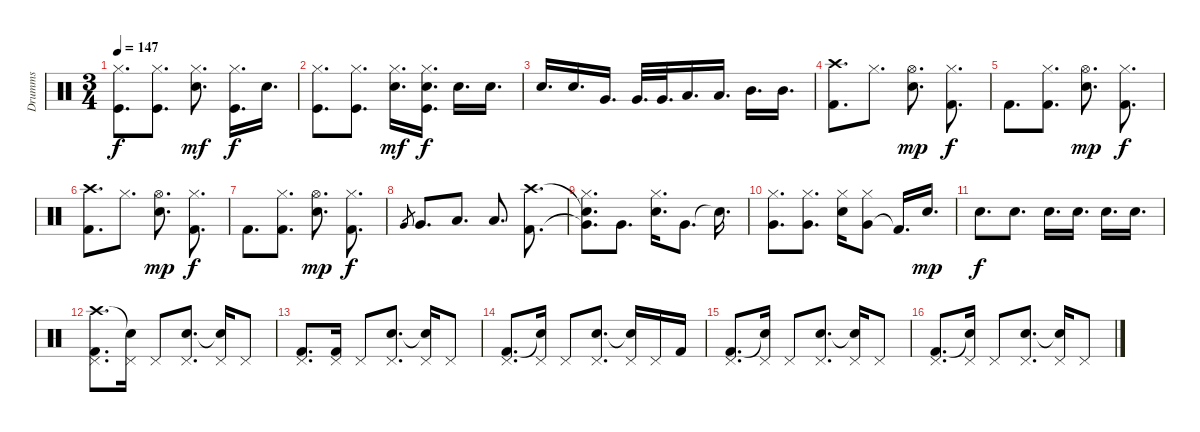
\track ("Drumms" "Drumms") {instrument percussion}
\staff {score}
\articulation defaults
\ts (3 4)
\tempo 147
\clef neutral
\ks c
("Kick (hit)" "Hi-Hat (closed)").8{d dy f} ("Kick (hit)" "Hi-Hat (closed)").8{d} ("Electric Snare (hit)" "Hi-Hat (closed)").8{d dy mf} ("Kick (hit)" "Hi-Hat (closed)").16{d dy f} "Electric Snare (hit)".16{d} |
("Kick (hit)" "Hi-Hat (closed)").8{d} ("Kick (hit)" "Hi-Hat (closed)").8{d} ("Electric Snare (hit)" "Hi-Hat (closed)").16{d dy mf} ("Electric Snare (hit)" "Kick (hit)" "Hi-Hat (closed)").16{d dy f} "Electric Snare (hit)".16{d} "Electric Snare (hit)".16{d} |
"Electric Snare (hit)".16{d} "Electric Snare (hit)".16{d} "Very Low Tom (hit)".16{d} "Very Low Tom (hit)".32{d} "Very Low Tom (hit)".32{d} "Low Tom (hit)".16{d} "Low Tom (hit)".16{d} "Mid Tom (hit)".16{d} "Mid Tom (hit)".16{d} |
("Crash high (hit)" "Kick (hit) 2").8{d} "Hi-Hat (closed)".8{d} ("Hi-Hat (open)" "Electric Snare (hit)").8{d dy mp} ("Kick (hit) 2" "Hi-Hat (closed)").8{d dy f} |
"Kick (hit) 2".8{d} ("Kick (hit) 2" "Hi-Hat (closed)").8{d} ("Hi-Hat (open)" "Electric Snare (hit)").8{d dy mp} ("Kick (hit) 2" "Hi-Hat (closed)").8{d dy f} |
("Crash high (hit)" "Kick (hit) 2").8{d} "Hi-Hat (closed)".8{d} ("Hi-Hat (open)" "Electric Snare (hit)").8{d dy mp} ("Kick (hit) 2" "Hi-Hat (closed)").8{d dy f} |
"Kick (hit) 2".8{d} ("Kick (hit) 2" "Hi-Hat (closed)").8{d} ("Hi-Hat (open)" "Electric Snare (hit)").8{d dy mp} ("Kick (hit) 2" "Hi-Hat (closed)").8{d dy f} |
"Very Low Tom (hit)".8{gr} "Very Low Tom (hit)".8{d} "Low Tom (hit)".8{d} "Low Tom (hit)".8{d} ("Crash high (hit)" "Kick (hit) 2").8{d} |
("Snare (hit)"{t} "Very Low Tom (hit)"{t} "Hi-Hat (closed)").8{d} "Very Low Tom (hit)".8{d} ("Electric Snare (hit)" "Hi-Hat (closed)").16{d} "Very Low Tom (hit)".8{d} "Snare (hit)"{t}.16{d} |
("Very Low Tom (hit)" "Hi-Hat (closed)").8{d} ("Very Low Tom (hit)" "Hi-Hat (closed)").8{d} ("Electric Snare (hit)" "Hi-Hat (closed)").16 ("Very Low Tom (hit)" "Hi-Hat (closed)").8 "Kick (hit) 2"{t}.16{d} "Electric Snare (hit)".16{d dy mp} |
"Electric Snare (hit)".8{d dy f} "Electric Snare (hit)".8{d} "Electric Snare (hit)".16{d} "Electric Snare (hit)".16{d} "Electric Snare (hit)".16{d} "Electric Snare (hit)".16{d} |
\section ("" "")
("Crash high (hit)" "Kick (hit) 2" "Pedal Hi-Hat (hit)").8{d} ("Snare (hit)"{t} "Pedal Hi-Hat (hit)").16 "Pedal Hi-Hat (hit)".8 ("Electric Snare (hit)" "Pedal Hi-Hat (hit)").8{d} ("Snare (hit)"{t} "Pedal Hi-Hat (hit)").16 "Pedal Hi-Hat (hit)".8 |
("Kick (hit) 2" "Pedal Hi-Hat (hit)").8{d} ("Kick (hit) 2" "Pedal Hi-Hat (hit)").16 "Pedal Hi-Hat (hit)".8 ("Electric Snare (hit)" "Pedal Hi-Hat (hit)").8{d} ("Snare (hit)"{t} "Pedal Hi-Hat (hit)").16 "Pedal Hi-Hat (hit)".8 |
("Kick (hit) 2" "Pedal Hi-Hat (hit)").8{d} ("Snare (hit)"{t} "Pedal Hi-Hat (hit)").16 "Pedal Hi-Hat (hit)".8 ("Electric Snare (hit)" "Pedal Hi-Hat (hit)").8{d} ("Snare (hit)"{t} "Pedal Hi-Hat (hit)").16 "Pedal Hi-Hat (hit)".16 "Kick (hit) 2".16 |
("Kick (hit) 2" "Pedal Hi-Hat (hit)").8{d} ("Snare (hit)"{t} "Pedal Hi-Hat (hit)").16 "Pedal Hi-Hat (hit)".8 ("Electric Snare (hit)" "Pedal Hi-Hat (hit)").8{d} ("Snare (hit)"{t} "Pedal Hi-Hat (hit)").16 "Pedal Hi-Hat (hit)".8 |
("Kick (hit) 2" "Pedal Hi-Hat (hit)").8{d} ("Snare (hit)"{t} "Pedal Hi-Hat (hit)").16 "Pedal Hi-Hat (hit)".8 ("Electric Snare (hit)" "Pedal Hi-Hat (hit)").8{d} ("Snare (hit)"{t} "Pedal Hi-Hat (hit)").16 "Pedal Hi-Hat (hit)".8
